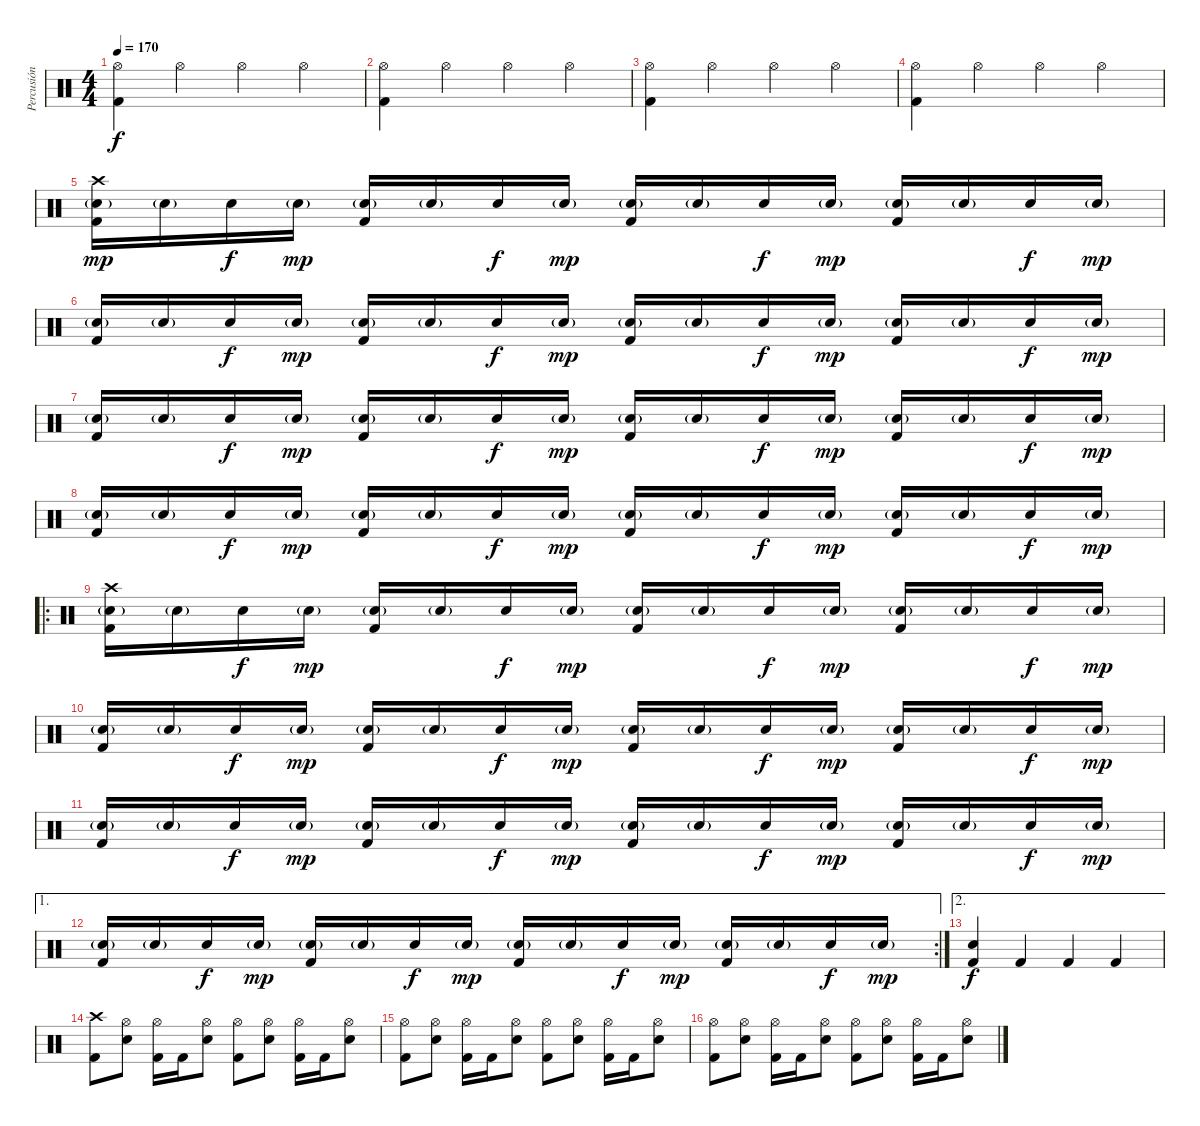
\track ("Percusión" "Percusión") {instrument percussion}
\staff {score}
\articulation defaults
\ts (4 4)
\tempo 170
\clef neutral
\ks c
("Kick (hit) 2" "Hi-Hat (open)").4{dy f} "Hi-Hat (open)".4 "Hi-Hat (open)".4 "Hi-Hat (open)".4 |
("Kick (hit) 2" "Hi-Hat (open)").4 "Hi-Hat (open)".4 "Hi-Hat (open)".4 "Hi-Hat (open)".4 |
("Kick (hit) 2" "Hi-Hat (open)").4 "Hi-Hat (open)".4 "Hi-Hat (open)".4 "Hi-Hat (open)".4 |
("Kick (hit) 2" "Hi-Hat (open)").4 "Hi-Hat (open)".4 "Hi-Hat (open)".4 "Hi-Hat (open)".4 |
("Kick (hit) 2" "Snare (hit) 2"{g} "Crash high (hit)").16{dy mp} "Snare (hit) 2"{g}.16 "Snare (hit) 2".16{dy f} "Snare (hit) 2"{g}.16{dy mp} ("Kick (hit) 2" "Snare (hit) 2"{g}).16 "Snare (hit) 2"{g}.16 "Snare (hit) 2".16{dy f} "Snare (hit) 2"{g}.16{dy mp} ("Kick (hit) 2" "Snare (hit) 2"{g}).16 "Snare (hit) 2"{g}.16 "Snare (hit) 2".16{dy f} "Snare (hit) 2"{g}.16{dy mp} ("Kick (hit) 2" "Snare (hit) 2"{g}).16 "Snare (hit) 2"{g}.16 "Snare (hit) 2".16{dy f} "Snare (hit) 2"{g}.16{dy mp} |
("Kick (hit) 2" "Snare (hit) 2"{g}).16 "Snare (hit) 2"{g}.16 "Snare (hit) 2".16{dy f} "Snare (hit) 2"{g}.16{dy mp} ("Kick (hit) 2" "Snare (hit) 2"{g}).16 "Snare (hit) 2"{g}.16 "Snare (hit) 2".16{dy f} "Snare (hit) 2"{g}.16{dy mp} ("Kick (hit) 2" "Snare (hit) 2"{g}).16 "Snare (hit) 2"{g}.16 "Snare (hit) 2".16{dy f} "Snare (hit) 2"{g}.16{dy mp} ("Kick (hit) 2" "Snare (hit) 2"{g}).16 "Snare (hit) 2"{g}.16 "Snare (hit) 2".16{dy f} "Snare (hit) 2"{g}.16{dy mp} |
("Kick (hit) 2" "Snare (hit) 2"{g}).16 "Snare (hit) 2"{g}.16 "Snare (hit) 2".16{dy f} "Snare (hit) 2"{g}.16{dy mp} ("Kick (hit) 2" "Snare (hit) 2"{g}).16 "Snare (hit) 2"{g}.16 "Snare (hit) 2".16{dy f} "Snare (hit) 2"{g}.16{dy mp} ("Kick (hit) 2" "Snare (hit) 2"{g}).16 "Snare (hit) 2"{g}.16 "Snare (hit) 2".16{dy f} "Snare (hit) 2"{g}.16{dy mp} ("Kick (hit) 2" "Snare (hit) 2"{g}).16 "Snare (hit) 2"{g}.16 "Snare (hit) 2".16{dy f} "Snare (hit) 2"{g}.16{dy mp} |
("Kick (hit) 2" "Snare (hit) 2"{g}).16 "Snare (hit) 2"{g}.16 "Snare (hit) 2".16{dy f} "Snare (hit) 2"{g}.16{dy mp} ("Kick (hit) 2" "Snare (hit) 2"{g}).16 "Snare (hit) 2"{g}.16 "Snare (hit) 2".16{dy f} "Snare (hit) 2"{g}.16{dy mp} ("Kick (hit) 2" "Snare (hit) 2"{g}).16 "Snare (hit) 2"{g}.16 "Snare (hit) 2".16{dy f} "Snare (hit) 2"{g}.16{dy mp} ("Kick (hit) 2" "Snare (hit) 2"{g}).16 "Snare (hit) 2"{g}.16 "Snare (hit) 2".16{dy f} "Snare (hit) 2"{g}.16{dy mp} |
\ro
("Kick (hit) 2" "Snare (hit) 2"{g} "Crash high (hit)").16 "Snare (hit) 2"{g}.16 "Snare (hit) 2".16{dy f} "Snare (hit) 2"{g}.16{dy mp} ("Kick (hit) 2" "Snare (hit) 2"{g}).16 "Snare (hit) 2"{g}.16 "Snare (hit) 2".16{dy f} "Snare (hit) 2"{g}.16{dy mp} ("Kick (hit) 2" "Snare (hit) 2"{g}).16 "Snare (hit) 2"{g}.16 "Snare (hit) 2".16{dy f} "Snare (hit) 2"{g}.16{dy mp} ("Kick (hit) 2" "Snare (hit) 2"{g}).16 "Snare (hit) 2"{g}.16 "Snare (hit) 2".16{dy f} "Snare (hit) 2"{g}.16{dy mp} |
("Kick (hit) 2" "Snare (hit) 2"{g}).16 "Snare (hit) 2"{g}.16 "Snare (hit) 2".16{dy f} "Snare (hit) 2"{g}.16{dy mp} ("Kick (hit) 2" "Snare (hit) 2"{g}).16 "Snare (hit) 2"{g}.16 "Snare (hit) 2".16{dy f} "Snare (hit) 2"{g}.16{dy mp} ("Kick (hit) 2" "Snare (hit) 2"{g}).16 "Snare (hit) 2"{g}.16 "Snare (hit) 2".16{dy f} "Snare (hit) 2"{g}.16{dy mp} ("Kick (hit) 2" "Snare (hit) 2"{g}).16 "Snare (hit) 2"{g}.16 "Snare (hit) 2".16{dy f} "Snare (hit) 2"{g}.16{dy mp} |
("Kick (hit) 2" "Snare (hit) 2"{g}).16 "Snare (hit) 2"{g}.16 "Snare (hit) 2".16{dy f} "Snare (hit) 2"{g}.16{dy mp} ("Kick (hit) 2" "Snare (hit) 2"{g}).16 "Snare (hit) 2"{g}.16 "Snare (hit) 2".16{dy f} "Snare (hit) 2"{g}.16{dy mp} ("Kick (hit) 2" "Snare (hit) 2"{g}).16 "Snare (hit) 2"{g}.16 "Snare (hit) 2".16{dy f} "Snare (hit) 2"{g}.16{dy mp} ("Kick (hit) 2" "Snare (hit) 2"{g}).16 "Snare (hit) 2"{g}.16 "Snare (hit) 2".16{dy f} "Snare (hit) 2"{g}.16{dy mp} |
\ae 1
\rc 2
("Kick (hit) 2" "Snare (hit) 2"{g}).16 "Snare (hit) 2"{g}.16 "Snare (hit) 2".16{dy f} "Snare (hit) 2"{g}.16{dy mp} ("Kick (hit) 2" "Snare (hit) 2"{g}).16 "Snare (hit) 2"{g}.16 "Snare (hit) 2".16{dy f} "Snare (hit) 2"{g}.16{dy mp} ("Kick (hit) 2" "Snare (hit) 2"{g}).16 "Snare (hit) 2"{g}.16 "Snare (hit) 2".16{dy f} "Snare (hit) 2"{g}.16{dy mp} ("Kick (hit) 2" "Snare (hit) 2"{g}).16 "Snare (hit) 2"{g}.16 "Snare (hit) 2".16{dy f} "Snare (hit) 2"{g}.16{dy mp} |
\ae 2
("Kick (hit) 2" "Snare (hit) 2").4{dy f} "Kick (hit) 2".4 "Kick (hit) 2".4 "Kick (hit) 2".4 |
("Kick (hit) 2" "Crash high (hit)").8 ("Snare (hit) 2" "Hi-Hat (open)").8 ("Kick (hit) 2" "Hi-Hat (open)").16 "Kick (hit) 2".16 ("Snare (hit) 2" "Hi-Hat (open)").8 ("Kick (hit) 2" "Hi-Hat (open)").8 ("Snare (hit) 2" "Hi-Hat (open)").8 ("Kick (hit) 2" "Hi-Hat (open)").16 "Kick (hit) 2".16 ("Snare (hit) 2" "Hi-Hat (open)").8 |
("Kick (hit) 2" "Hi-Hat (open)").8 ("Snare (hit) 2" "Hi-Hat (open)").8 ("Kick (hit) 2" "Hi-Hat (open)").16 "Kick (hit) 2".16 ("Snare (hit) 2" "Hi-Hat (open)").8 ("Kick (hit) 2" "Hi-Hat (open)").8 ("Snare (hit) 2" "Hi-Hat (open)").8 ("Kick (hit) 2" "Hi-Hat (open)").16 "Kick (hit) 2".16 ("Snare (hit) 2" "Hi-Hat (open)").8 |
("Kick (hit) 2" "Hi-Hat (open)").8 ("Snare (hit) 2" "Hi-Hat (open)").8 ("Kick (hit) 2" "Hi-Hat (open)").16 "Kick (hit) 2".16 ("Snare (hit) 2" "Hi-Hat (open)").8 ("Kick (hit) 2" "Hi-Hat (open)").8 ("Snare (hit) 2" "Hi-Hat (open)").8 ("Kick (hit) 2" "Hi-Hat (open)").16 "Kick (hit) 2".16 ("Snare (hit) 2" "Hi-Hat (open)").8
